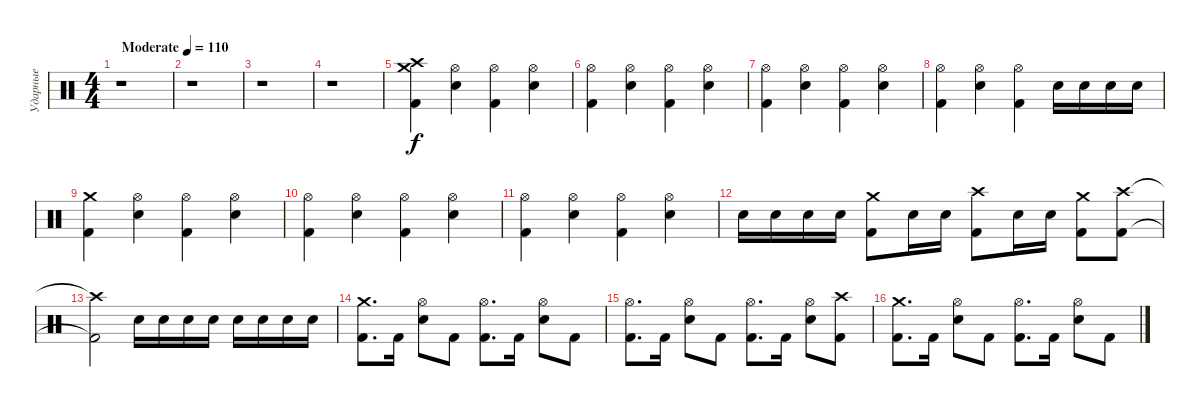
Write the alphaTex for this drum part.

\track ("Ударные" "Ударные") {instrument percussion}
\staff {score}
\articulation defaults
\ts (4 4)
\tempo (110 "Moderate")
\clef neutral
\ks c
r.1{dy f} |
r.1 |
r.1 |
r.1 |
("Crash medium (hit)" "Crash high (hit)" "Kick (hit) 2").4 ("Hi-Hat (open)" "Electric Snare (hit)").4 ("Hi-Hat (open)" "Kick (hit) 2").4 ("Hi-Hat (open)" "Electric Snare (hit)").4 |
("Hi-Hat (open)" "Kick (hit) 2").4 ("Hi-Hat (open)" "Electric Snare (hit)").4 ("Hi-Hat (open)" "Kick (hit) 2").4 ("Hi-Hat (open)" "Electric Snare (hit)").4 |
("Hi-Hat (open)" "Kick (hit) 2").4 ("Hi-Hat (open)" "Electric Snare (hit)").4 ("Hi-Hat (open)" "Kick (hit) 2").4 ("Hi-Hat (open)" "Electric Snare (hit)").4 |
("Hi-Hat (open)" "Kick (hit) 2").4 ("Hi-Hat (open)" "Electric Snare (hit)").4 ("Hi-Hat (open)" "Kick (hit) 2").4 "Electric Snare (hit)".16 "Electric Snare (hit)".16 "Electric Snare (hit)".16 "Electric Snare (hit)".16 |
("Crash medium (hit)" "Kick (hit) 2").4 ("Hi-Hat (open)" "Electric Snare (hit)").4 ("Hi-Hat (open)" "Kick (hit) 2").4 ("Hi-Hat (open)" "Electric Snare (hit)").4 |
("Hi-Hat (open)" "Kick (hit) 2").4 ("Hi-Hat (open)" "Electric Snare (hit)").4 ("Hi-Hat (open)" "Kick (hit) 2").4 ("Hi-Hat (open)" "Electric Snare (hit)").4 |
("Hi-Hat (open)" "Kick (hit) 2").4 ("Hi-Hat (open)" "Electric Snare (hit)").4 ("Hi-Hat (open)" "Kick (hit) 2").4 ("Hi-Hat (open)" "Electric Snare (hit)").4 |
"Electric Snare (hit)".16 "Electric Snare (hit)".16 "Electric Snare (hit)".16 "Electric Snare (hit)".16 ("Crash medium (hit)" "Kick (hit) 2").8 "Electric Snare (hit)".16 "Electric Snare (hit)".16 ("Crash high (hit)" "Kick (hit) 2").8 "Electric Snare (hit)".16 "Electric Snare (hit)".16 ("Crash medium (hit)" "Kick (hit) 2").8 ("Crash high (hit)" "Kick (hit) 2").8 |
("Crash high (hit)"{t} "Kick (hit) 2"{t}).2 "Electric Snare (hit)".16 "Electric Snare (hit)".16 "Electric Snare (hit)".16 "Electric Snare (hit)".16 "Electric Snare (hit)".16 "Electric Snare (hit)".16 "Electric Snare (hit)".16 "Electric Snare (hit)".16 |
("Crash medium (hit)" "Kick (hit) 2").8{d} "Kick (hit) 2".16 ("Hi-Hat (open)" "Electric Snare (hit)").8 "Kick (hit) 2".8 ("Hi-Hat (open)" "Kick (hit) 2").8{d} "Kick (hit) 2".16 ("Hi-Hat (open)" "Electric Snare (hit)").8 "Kick (hit) 2".8 |
("Hi-Hat (open)" "Kick (hit) 2").8{d} "Kick (hit) 2".16 ("Hi-Hat (open)" "Electric Snare (hit)").8 "Kick (hit) 2".8 ("Hi-Hat (open)" "Kick (hit) 2").8{d} "Kick (hit) 2".16 ("Hi-Hat (open)" "Electric Snare (hit)").8 ("Crash high (hit)" "Kick (hit) 2").8 |
("Crash medium (hit)" "Kick (hit) 2").8{d} "Kick (hit) 2".16 ("Hi-Hat (open)" "Electric Snare (hit)").8 "Kick (hit) 2".8 ("Hi-Hat (open)" "Kick (hit) 2").8{d} "Kick (hit) 2".16 ("Hi-Hat (open)" "Electric Snare (hit)").8 "Kick (hit) 2".8
